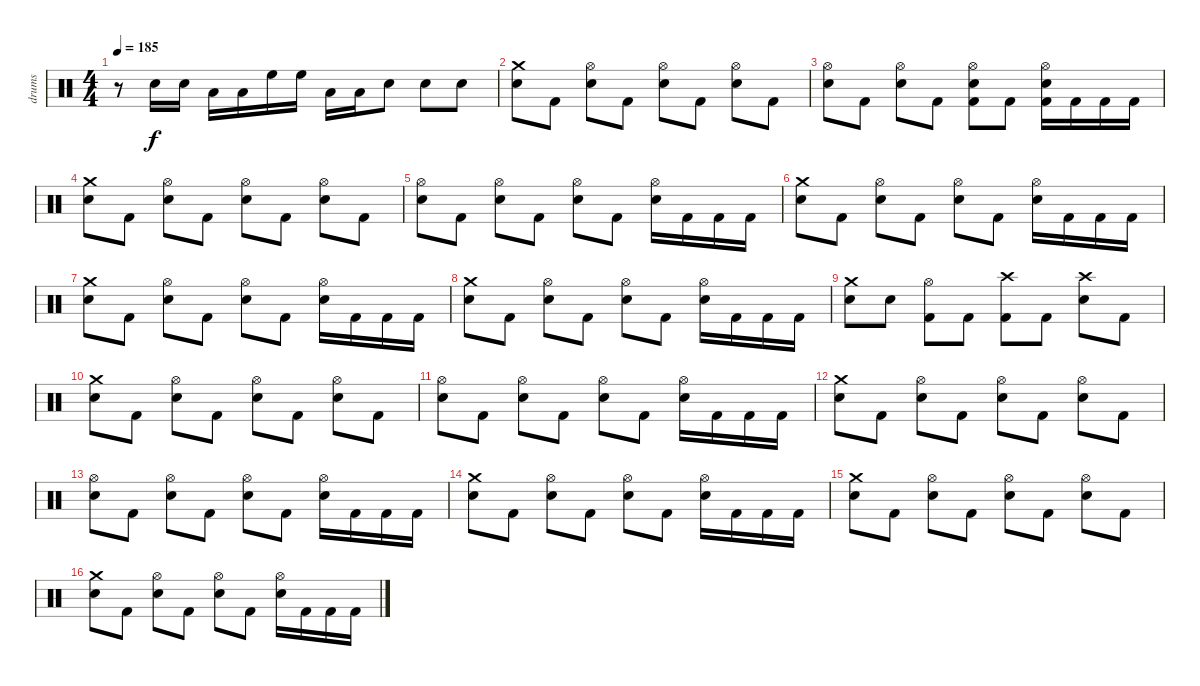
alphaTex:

\track ("drums" "drums") {instrument percussion}
\staff {score}
\articulation defaults
\ts (4 4)
\tempo 185
\clef neutral
\ks c
r.8{dy f} "Electric Snare (hit)".16 "Electric Snare (hit)".16 "Low Tom (hit)".16 "Low Tom (hit)".16 "High Floor Tom (hit)".16 "High Floor Tom (hit)".16 "Low Floor Tom (hit)".16 "Low Floor Tom (hit)".16 "Electric Snare (hit)".8 "Electric Snare (hit)".8 "Electric Snare (hit)".8 |
("Crash medium (hit)" "Electric Snare (hit)").8 "Kick (hit) 2".8 ("Hi-Hat (open)" "Electric Snare (hit)").8 "Kick (hit) 2".8 ("Hi-Hat (open)" "Electric Snare (hit)").8 "Kick (hit) 2".8 ("Hi-Hat (open)" "Electric Snare (hit)").8 "Kick (hit) 2".8 |
("Hi-Hat (open)" "Electric Snare (hit)").8 "Kick (hit) 2".8 ("Hi-Hat (open)" "Electric Snare (hit)").8 "Kick (hit) 2".8 ("Hi-Hat (open)" "Kick (hit) 2" "Electric Snare (hit)").8 "Kick (hit) 2".8 ("Hi-Hat (open)" "Kick (hit) 2" "Electric Snare (hit)").16 "Kick (hit) 2".16 "Kick (hit) 2".16 "Kick (hit) 2".16 |
("Crash medium (hit)" "Electric Snare (hit)").8 "Kick (hit) 2".8 ("Hi-Hat (open)" "Electric Snare (hit)").8 "Kick (hit) 2".8 ("Hi-Hat (open)" "Electric Snare (hit)").8 "Kick (hit) 2".8 ("Hi-Hat (open)" "Electric Snare (hit)").8 "Kick (hit) 2".8 |
("Hi-Hat (open)" "Electric Snare (hit)").8 "Kick (hit) 2".8 ("Hi-Hat (open)" "Electric Snare (hit)").8 "Kick (hit) 2".8 ("Hi-Hat (open)" "Electric Snare (hit)").8 "Kick (hit) 2".8 ("Hi-Hat (open)" "Electric Snare (hit)").16 "Kick (hit) 2".16 "Kick (hit) 2".16 "Kick (hit) 2".16 |
("Crash medium (hit)" "Electric Snare (hit)").8 "Kick (hit) 2".8 ("Hi-Hat (open)" "Electric Snare (hit)").8 "Kick (hit) 2".8 ("Hi-Hat (open)" "Electric Snare (hit)").8 "Kick (hit) 2".8 ("Hi-Hat (open)" "Electric Snare (hit)").16 "Kick (hit) 2".16 "Kick (hit) 2".16 "Kick (hit) 2".16 |
("Crash medium (hit)" "Electric Snare (hit)").8 "Kick (hit) 2".8 ("Hi-Hat (open)" "Electric Snare (hit)").8 "Kick (hit) 2".8 ("Hi-Hat (open)" "Electric Snare (hit)").8 "Kick (hit) 2".8 ("Hi-Hat (open)" "Electric Snare (hit)").16 "Kick (hit) 2".16 "Kick (hit) 2".16 "Kick (hit) 2".16 |
("Crash medium (hit)" "Electric Snare (hit)").8 "Kick (hit) 2".8 ("Hi-Hat (open)" "Electric Snare (hit)").8 "Kick (hit) 2".8 ("Hi-Hat (open)" "Electric Snare (hit)").8 "Kick (hit) 2".8 ("Hi-Hat (open)" "Electric Snare (hit)").16 "Kick (hit) 2".16 "Kick (hit) 2".16 "Kick (hit) 2".16 |
("Crash medium (hit)" "Electric Snare (hit)").8 "Electric Snare (hit)".8 ("Hi-Hat (open)" "Kick (hit) 2").8 "Kick (hit) 2".8 ("Crash high (hit)" "Kick (hit) 2").8 "Kick (hit) 2".8 ("Crash high (hit)" "Electric Snare (hit)").8 "Kick (hit) 2".8 |
("Crash medium (hit)" "Electric Snare (hit)").8 "Kick (hit) 2".8 ("Hi-Hat (open)" "Electric Snare (hit)").8 "Kick (hit) 2".8 ("Hi-Hat (open)" "Electric Snare (hit)").8 "Kick (hit) 2".8 ("Hi-Hat (open)" "Electric Snare (hit)").8 "Kick (hit) 2".8 |
("Hi-Hat (open)" "Electric Snare (hit)").8 "Kick (hit) 2".8 ("Hi-Hat (open)" "Electric Snare (hit)").8 "Kick (hit) 2".8 ("Hi-Hat (open)" "Electric Snare (hit)").8 "Kick (hit) 2".8 ("Hi-Hat (open)" "Electric Snare (hit)").16 "Kick (hit) 2".16 "Kick (hit) 2".16 "Kick (hit) 2".16 |
("Crash medium (hit)" "Electric Snare (hit)").8 "Kick (hit) 2".8 ("Hi-Hat (open)" "Electric Snare (hit)").8 "Kick (hit) 2".8 ("Hi-Hat (open)" "Electric Snare (hit)").8 "Kick (hit) 2".8 ("Hi-Hat (open)" "Electric Snare (hit)").8 "Kick (hit) 2".8 |
("Hi-Hat (open)" "Electric Snare (hit)").8 "Kick (hit) 2".8 ("Hi-Hat (open)" "Electric Snare (hit)").8 "Kick (hit) 2".8 ("Hi-Hat (open)" "Electric Snare (hit)").8 "Kick (hit) 2".8 ("Hi-Hat (open)" "Electric Snare (hit)").16 "Kick (hit) 2".16 "Kick (hit) 2".16 "Kick (hit) 2".16 |
("Crash medium (hit)" "Electric Snare (hit)").8 "Kick (hit) 2".8 ("Hi-Hat (open)" "Electric Snare (hit)").8 "Kick (hit) 2".8 ("Hi-Hat (open)" "Electric Snare (hit)").8 "Kick (hit) 2".8 ("Hi-Hat (open)" "Electric Snare (hit)").16 "Kick (hit) 2".16 "Kick (hit) 2".16 "Kick (hit) 2".16 |
("Crash medium (hit)" "Electric Snare (hit)").8 "Kick (hit) 2".8 ("Hi-Hat (open)" "Electric Snare (hit)").8 "Kick (hit) 2".8 ("Hi-Hat (open)" "Electric Snare (hit)").8 "Kick (hit) 2".8 ("Hi-Hat (open)" "Electric Snare (hit)").8 "Kick (hit) 2".8 |
("Crash medium (hit)" "Electric Snare (hit)").8 "Kick (hit) 2".8 ("Hi-Hat (open)" "Electric Snare (hit)").8 "Kick (hit) 2".8 ("Hi-Hat (open)" "Electric Snare (hit)").8 "Kick (hit) 2".8 ("Hi-Hat (open)" "Electric Snare (hit)").16 "Kick (hit) 2".16 "Kick (hit) 2".16 "Kick (hit) 2".16
